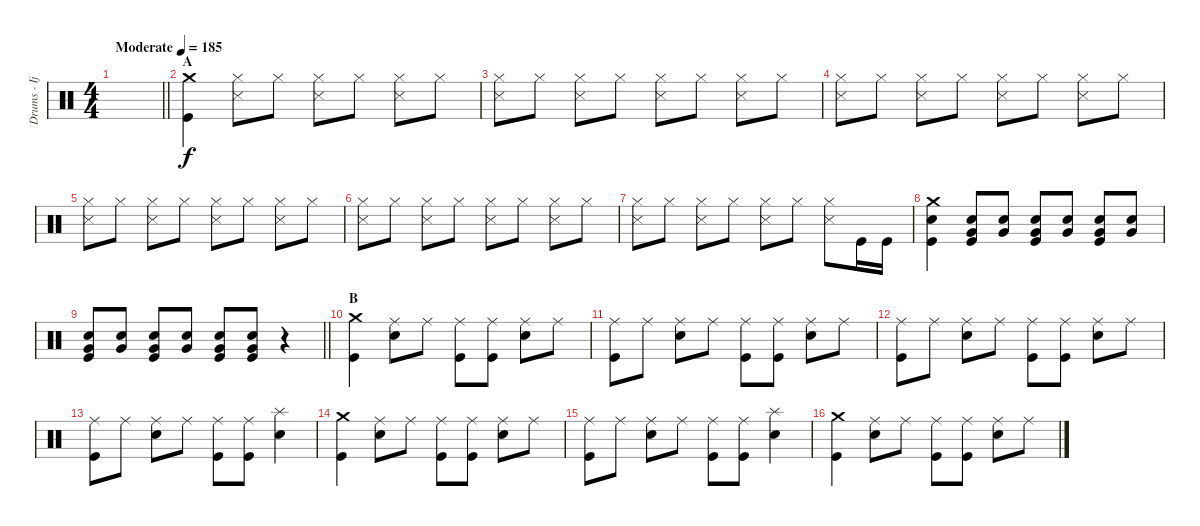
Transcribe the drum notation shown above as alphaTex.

\track ("Drums - Ijichi" "Drums - Ij") {instrument percussion}
\staff {score}
\articulation defaults
\ts (4 4)
\tempo (185 "Moderate")
\clef neutral
\barLineRight lightlight
\ks c
|
\section ("" "A")
("Crash medium (hit)" "Kick (hit)").4 ("Hi-Hat (closed)" "Snare (side stick) 3").8 "Hi-Hat (closed)".8 ("Hi-Hat (closed)" "Snare (side stick) 3").8 "Hi-Hat (closed)".8 ("Hi-Hat (closed)" "Snare (side stick) 3").8 "Hi-Hat (closed)".8 |
("Hi-Hat (closed)" "Snare (side stick) 3").8 "Hi-Hat (closed)".8 ("Hi-Hat (closed)" "Snare (side stick) 3").8 "Hi-Hat (closed)".8 ("Hi-Hat (closed)" "Snare (side stick) 3").8 "Hi-Hat (closed)".8 ("Hi-Hat (closed)" "Snare (side stick) 3").8 "Hi-Hat (closed)".8 |
("Hi-Hat (closed)" "Snare (side stick) 3").8 "Hi-Hat (closed)".8 ("Hi-Hat (closed)" "Snare (side stick) 3").8 "Hi-Hat (closed)".8 ("Hi-Hat (closed)" "Snare (side stick) 3").8 "Hi-Hat (closed)".8 ("Hi-Hat (closed)" "Snare (side stick) 3").8 "Hi-Hat (closed)".8 |
("Hi-Hat (closed)" "Snare (side stick) 3").8 "Hi-Hat (closed)".8 ("Hi-Hat (closed)" "Snare (side stick) 3").8 "Hi-Hat (closed)".8 ("Hi-Hat (closed)" "Snare (side stick) 3").8 "Hi-Hat (closed)".8 ("Hi-Hat (closed)" "Snare (side stick) 3").8 "Hi-Hat (closed)".8 |
("Hi-Hat (closed)" "Snare (side stick) 3").8 "Hi-Hat (closed)".8 ("Hi-Hat (closed)" "Snare (side stick) 3").8 "Hi-Hat (closed)".8 ("Hi-Hat (closed)" "Snare (side stick) 3").8 "Hi-Hat (closed)".8 ("Hi-Hat (closed)" "Snare (side stick) 3").8 "Hi-Hat (closed)".8 |
("Hi-Hat (closed)" "Snare (side stick) 3").8 "Hi-Hat (closed)".8 ("Hi-Hat (closed)" "Snare (side stick) 3").8 "Hi-Hat (closed)".8 ("Hi-Hat (closed)" "Snare (side stick) 3").8 "Hi-Hat (closed)".8 ("Hi-Hat (closed)" "Snare (side stick) 3").8 "Kick (hit)".16 "Kick (hit)".16 |
("Crash medium (hit)" "Electric Snare (hit)" "Kick (hit)").4 ("Electric Snare (hit)" "Very Low Tom (hit)" "Kick (hit)").8{volume 7} ("Electric Snare (hit)" "Very Low Tom (hit)").8{volume 13} ("Electric Snare (hit)" "Very Low Tom (hit)" "Kick (hit)").8 ("Electric Snare (hit)" "Very Low Tom (hit)").8 ("Electric Snare (hit)" "Very Low Tom (hit)" "Kick (hit)").8 ("Electric Snare (hit)" "Very Low Tom (hit)").8 |
\barLineRight lightlight
("Electric Snare (hit)" "Very Low Tom (hit)" "Kick (hit)").8 ("Electric Snare (hit)" "Very Low Tom (hit)").8 ("Electric Snare (hit)" "Very Low Tom (hit)" "Kick (hit)").8 ("Electric Snare (hit)" "Very Low Tom (hit)").8 ("Electric Snare (hit)" "Very Low Tom (hit)" "Kick (hit)").8 ("Electric Snare (hit)" "Very Low Tom (hit)" "Kick (hit)").8 r.4 |
\section ("" "B")
("Crash medium (hit)" "Kick (hit)").4 ("Ride (middle)" "Electric Snare (hit)").8 "Ride (middle)".8 ("Ride (middle)" "Kick (hit)").8 ("Ride (middle)" "Kick (hit)").8 ("Ride (middle)" "Electric Snare (hit)").8 "Ride (middle)".8 |
("Ride (middle)" "Kick (hit)").8 "Ride (middle)".8 ("Ride (middle)" "Electric Snare (hit)").8 "Ride (middle)".8 ("Ride (middle)" "Kick (hit)").8 ("Ride (middle)" "Kick (hit)").8 ("Ride (middle)" "Electric Snare (hit)").8 "Ride (middle)".8 |
("Ride (middle)" "Kick (hit)").8 "Ride (middle)".8 ("Ride (middle)" "Electric Snare (hit)").8 "Ride (middle)".8 ("Ride (middle)" "Kick (hit)").8 ("Ride (middle)" "Kick (hit)").8 ("Ride (middle)" "Electric Snare (hit)").8 "Ride (middle)".8 |
("Ride (middle)" "Kick (hit)").8 "Ride (middle)".8 ("Ride (middle)" "Electric Snare (hit)").8 "Ride (middle)".8 ("Ride (middle)" "Kick (hit)").8 ("Ride (middle)" "Kick (hit)").8 ("Splash (hit)" "Electric Snare (hit)").4 |
("Crash medium (hit)" "Kick (hit)").4 ("Ride (middle)" "Electric Snare (hit)").8 "Ride (middle)".8 ("Ride (middle)" "Kick (hit)").8 ("Ride (middle)" "Kick (hit)").8 ("Ride (middle)" "Electric Snare (hit)").8 "Ride (middle)".8 |
("Ride (middle)" "Kick (hit)").8 "Ride (middle)".8 ("Ride (middle)" "Electric Snare (hit)").8 "Ride (middle)".8 ("Ride (middle)" "Kick (hit)").8 ("Ride (middle)" "Kick (hit)").8 ("Splash (hit)" "Electric Snare (hit)").4 |
("Crash medium (hit)" "Kick (hit)").4 ("Ride (middle)" "Electric Snare (hit)").8 "Ride (middle)".8 ("Ride (middle)" "Kick (hit)").8 ("Ride (middle)" "Kick (hit)").8 ("Ride (middle)" "Electric Snare (hit)").8 "Ride (middle)".8
